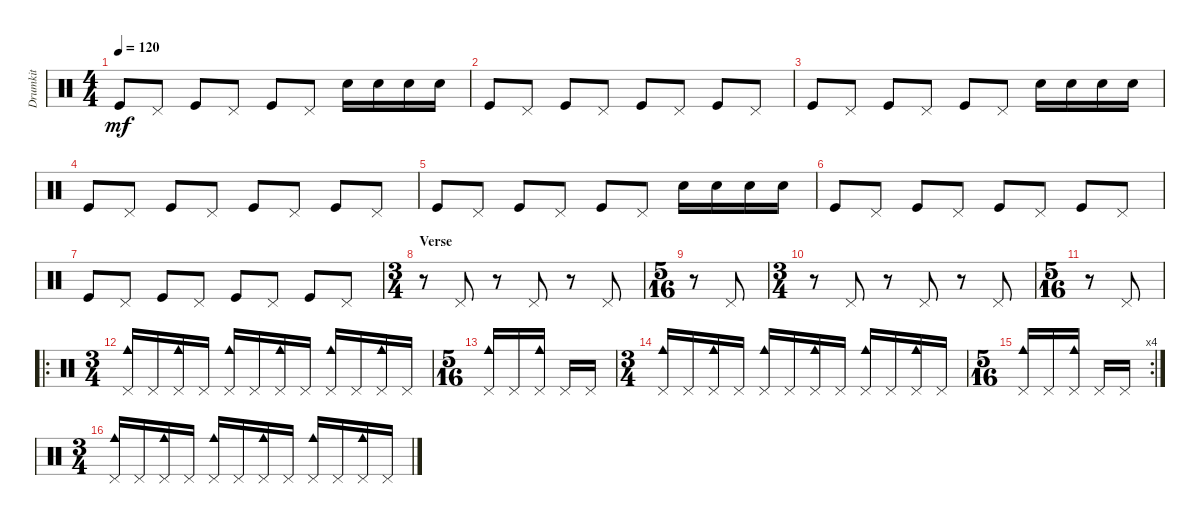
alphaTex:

\track ("Drumkit" "Drumkit") {instrument percussion}
\staff {score}
\articulation defaults
\ts (4 4)
\tempo 120
\clef neutral
\ks c "Kick (hit)".8{dy mf} "Pedal Hi-Hat (hit)".8 "Kick (hit)".8 "Pedal Hi-Hat (hit)".8 "Kick (hit)".8 "Pedal Hi-Hat (hit)".8 "Snare (hit) 2".16 "Snare (hit) 2".16 "Snare (hit) 2".16 "Snare (hit) 2".16
|
"Kick (hit)".8 "Pedal Hi-Hat (hit)".8 "Kick (hit)".8 "Pedal Hi-Hat (hit)".8 "Kick (hit)".8 "Pedal Hi-Hat (hit)".8 "Kick (hit)".8 "Pedal Hi-Hat (hit)".8 |
"Kick (hit)".8 "Pedal Hi-Hat (hit)".8 "Kick (hit)".8 "Pedal Hi-Hat (hit)".8 "Kick (hit)".8 "Pedal Hi-Hat (hit)".8 "Snare (hit) 2".16 "Snare (hit) 2".16 "Snare (hit) 2".16 "Snare (hit) 2".16 |
"Kick (hit)".8 "Pedal Hi-Hat (hit)".8 "Kick (hit)".8 "Pedal Hi-Hat (hit)".8 "Kick (hit)".8 "Pedal Hi-Hat (hit)".8 "Kick (hit)".8 "Pedal Hi-Hat (hit)".8 |
"Kick (hit)".8 "Pedal Hi-Hat (hit)".8 "Kick (hit)".8 "Pedal Hi-Hat (hit)".8 "Kick (hit)".8 "Pedal Hi-Hat (hit)".8 "Snare (hit) 2".16 "Snare (hit) 2".16 "Snare (hit) 2".16 "Snare (hit) 2".16 |
"Kick (hit)".8 "Pedal Hi-Hat (hit)".8 "Kick (hit)".8 "Pedal Hi-Hat (hit)".8 "Kick (hit)".8 "Pedal Hi-Hat (hit)".8 "Kick (hit)".8 "Pedal Hi-Hat (hit)".8 |
"Kick (hit)".8 "Pedal Hi-Hat (hit)".8 "Kick (hit)".8 "Pedal Hi-Hat (hit)".8 "Kick (hit)".8 "Pedal Hi-Hat (hit)".8 "Kick (hit)".8 "Pedal Hi-Hat (hit)".8 |
\ts (3 4)
\section ("" "Verse")
r.8 "Pedal Hi-Hat (hit)".8 r.8 "Pedal Hi-Hat (hit)".8 r.8 "Pedal Hi-Hat (hit)".8 |
\ts (5 16)
r.8 "Pedal Hi-Hat (hit)".8 |
\ts (3 4)
r.8 "Pedal Hi-Hat (hit)".8 r.8 "Pedal Hi-Hat (hit)".8 r.8 "Pedal Hi-Hat (hit)".8 |
\ts (5 16)
r.8 "Pedal Hi-Hat (hit)".8 |
\ro
\ts (3 4)
("Cowbell medium (hit)" "Pedal Hi-Hat (hit)").16 "Pedal Hi-Hat (hit)".16 ("Cowbell medium (hit)" "Pedal Hi-Hat (hit)").16 "Pedal Hi-Hat (hit)".16 ("Cowbell medium (hit)" "Pedal Hi-Hat (hit)").16 "Pedal Hi-Hat (hit)".16 ("Pedal Hi-Hat (hit)" "Cowbell medium (hit)").16 "Pedal Hi-Hat (hit)".16 ("Pedal Hi-Hat (hit)" "Cowbell medium (hit)").16 "Pedal Hi-Hat (hit)".16 ("Pedal Hi-Hat (hit)" "Cowbell medium (hit)").16 "Pedal Hi-Hat (hit)".16 |
\ts (5 16)
("Cowbell medium (hit)" "Pedal Hi-Hat (hit)").16 "Pedal Hi-Hat (hit)".16 ("Pedal Hi-Hat (hit)" "Cowbell medium (hit)").16 "Pedal Hi-Hat (hit)".16 "Pedal Hi-Hat (hit)".16 |
\ts (3 4)
("Cowbell medium (hit)" "Pedal Hi-Hat (hit)").16 "Pedal Hi-Hat (hit)".16 ("Cowbell medium (hit)" "Pedal Hi-Hat (hit)").16 "Pedal Hi-Hat (hit)".16 ("Cowbell medium (hit)" "Pedal Hi-Hat (hit)").16 "Pedal Hi-Hat (hit)".16 ("Pedal Hi-Hat (hit)" "Cowbell medium (hit)").16 "Pedal Hi-Hat (hit)".16 ("Pedal Hi-Hat (hit)" "Cowbell medium (hit)").16 "Pedal Hi-Hat (hit)".16 ("Pedal Hi-Hat (hit)" "Cowbell medium (hit)").16 "Pedal Hi-Hat (hit)".16 |
\rc 4
\ts (5 16)
("Cowbell medium (hit)" "Pedal Hi-Hat (hit)").16 "Pedal Hi-Hat (hit)".16 ("Pedal Hi-Hat (hit)" "Cowbell medium (hit)").16 "Pedal Hi-Hat (hit)".16 "Pedal Hi-Hat (hit)".16 |
\ts (3 4)
("Cowbell medium (hit)" "Pedal Hi-Hat (hit)").16 "Pedal Hi-Hat (hit)".16 ("Cowbell medium (hit)" "Pedal Hi-Hat (hit)").16 "Pedal Hi-Hat (hit)".16 ("Cowbell medium (hit)" "Pedal Hi-Hat (hit)").16 "Pedal Hi-Hat (hit)".16 ("Pedal Hi-Hat (hit)" "Cowbell medium (hit)").16 "Pedal Hi-Hat (hit)".16 ("Pedal Hi-Hat (hit)" "Cowbell medium (hit)").16 "Pedal Hi-Hat (hit)".16 ("Pedal Hi-Hat (hit)" "Cowbell medium (hit)").16 "Pedal Hi-Hat (hit)".16
